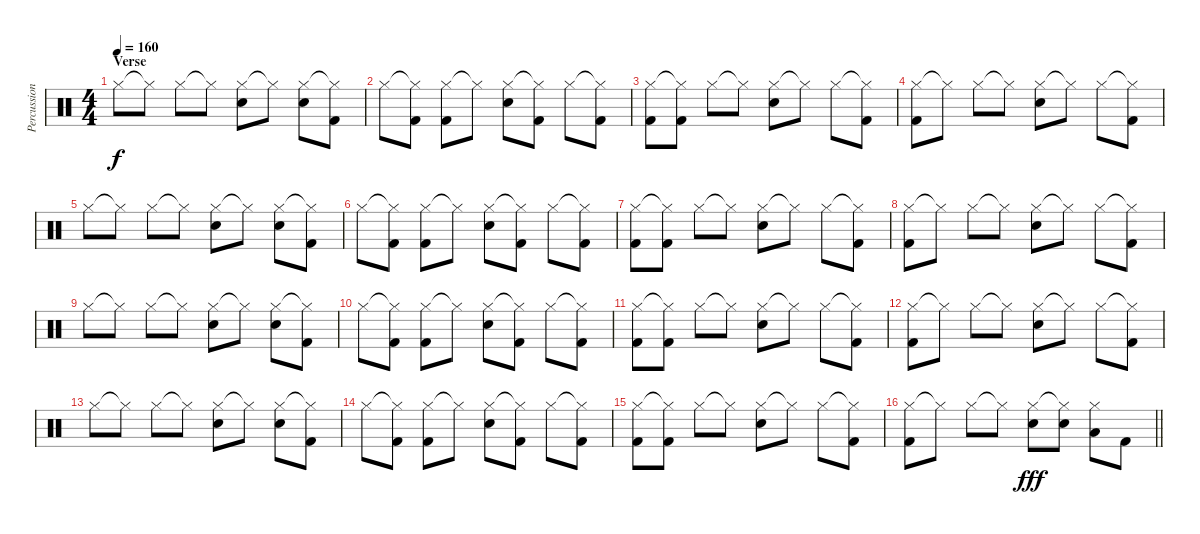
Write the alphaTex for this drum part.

\track ("Percussions" "Percussion") {instrument percussion}
\staff {score}
\articulation defaults
\ts (4 4)
\section ("" "Verse")
\tempo 160
\clef neutral
\ks c "Hi-Hat (closed)".8{dy f} "Hi-Hat (closed)"{t}.8 "Hi-Hat (closed)".8 "Hi-Hat (closed)"{t}.8
("Hi-Hat (closed)" "Snare (hit) 2").8 "Hi-Hat (closed)"{t}.8 ("Hi-Hat (closed)" "Snare (hit) 2").8 ("Hi-Hat (closed)"{t} "Kick (hit) 2").8 |
"Hi-Hat (closed)".8 ("Hi-Hat (closed)"{t} "Kick (hit) 2").8 ("Hi-Hat (closed)" "Kick (hit) 2").8 "Hi-Hat (closed)"{t}.8 ("Hi-Hat (closed)" "Snare (hit) 2").8 ("Hi-Hat (closed)"{t} "Kick (hit) 2").8 "Hi-Hat (closed)".8 ("Hi-Hat (closed)"{t} "Kick (hit) 2").8 |
("Hi-Hat (closed)" "Kick (hit) 2").8 ("Hi-Hat (closed)"{t} "Kick (hit) 2").8 "Hi-Hat (closed)".8 "Hi-Hat (closed)"{t}.8 ("Hi-Hat (closed)" "Snare (hit) 2").8 "Hi-Hat (closed)"{t}.8 "Hi-Hat (closed)".8 ("Hi-Hat (closed)"{t} "Kick (hit) 2").8 |
("Hi-Hat (closed)" "Kick (hit) 2").8 "Hi-Hat (closed)"{t}.8 "Hi-Hat (closed)".8 "Hi-Hat (closed)"{t}.8 ("Hi-Hat (closed)" "Snare (hit) 2").8 "Hi-Hat (closed)"{t}.8 "Hi-Hat (closed)".8 ("Hi-Hat (closed)"{t} "Kick (hit) 2").8 |
"Hi-Hat (closed)".8 "Hi-Hat (closed)"{t}.8 "Hi-Hat (closed)".8 "Hi-Hat (closed)"{t}.8 ("Hi-Hat (closed)" "Snare (hit) 2").8 "Hi-Hat (closed)"{t}.8 ("Hi-Hat (closed)" "Snare (hit) 2").8 ("Hi-Hat (closed)"{t} "Kick (hit) 2").8 |
"Hi-Hat (closed)".8 ("Hi-Hat (closed)"{t} "Kick (hit) 2").8 ("Hi-Hat (closed)" "Kick (hit) 2").8 "Hi-Hat (closed)"{t}.8 ("Hi-Hat (closed)" "Snare (hit) 2").8 ("Hi-Hat (closed)"{t} "Kick (hit) 2").8 "Hi-Hat (closed)".8 ("Hi-Hat (closed)"{t} "Kick (hit) 2").8 |
("Hi-Hat (closed)" "Kick (hit) 2").8 ("Hi-Hat (closed)"{t} "Kick (hit) 2").8 "Hi-Hat (closed)".8 "Hi-Hat (closed)"{t}.8 ("Hi-Hat (closed)" "Snare (hit) 2").8 "Hi-Hat (closed)"{t}.8 "Hi-Hat (closed)".8 ("Hi-Hat (closed)"{t} "Kick (hit) 2").8 |
("Hi-Hat (closed)" "Kick (hit) 2").8 "Hi-Hat (closed)"{t}.8 "Hi-Hat (closed)".8 "Hi-Hat (closed)"{t}.8 ("Hi-Hat (closed)" "Snare (hit) 2").8 "Hi-Hat (closed)"{t}.8 "Hi-Hat (closed)".8 ("Hi-Hat (closed)"{t} "Kick (hit) 2").8 |
"Hi-Hat (closed)".8 "Hi-Hat (closed)"{t}.8 "Hi-Hat (closed)".8 "Hi-Hat (closed)"{t}.8 ("Hi-Hat (closed)" "Snare (hit) 2").8 "Hi-Hat (closed)"{t}.8 ("Hi-Hat (closed)" "Snare (hit) 2").8 ("Hi-Hat (closed)"{t} "Kick (hit) 2").8 |
"Hi-Hat (closed)".8 ("Hi-Hat (closed)"{t} "Kick (hit) 2").8 ("Hi-Hat (closed)" "Kick (hit) 2").8 "Hi-Hat (closed)"{t}.8 ("Hi-Hat (closed)" "Snare (hit) 2").8 ("Hi-Hat (closed)"{t} "Kick (hit) 2").8 "Hi-Hat (closed)".8 ("Hi-Hat (closed)"{t} "Kick (hit) 2").8 |
("Hi-Hat (closed)" "Kick (hit) 2").8 ("Hi-Hat (closed)"{t} "Kick (hit) 2").8 "Hi-Hat (closed)".8 "Hi-Hat (closed)"{t}.8 ("Hi-Hat (closed)" "Snare (hit) 2").8 "Hi-Hat (closed)"{t}.8 "Hi-Hat (closed)".8 ("Hi-Hat (closed)"{t} "Kick (hit) 2").8 |
("Hi-Hat (closed)" "Kick (hit) 2").8 "Hi-Hat (closed)"{t}.8 "Hi-Hat (closed)".8 "Hi-Hat (closed)"{t}.8 ("Hi-Hat (closed)" "Snare (hit) 2").8 "Hi-Hat (closed)"{t}.8 "Hi-Hat (closed)".8 ("Hi-Hat (closed)"{t} "Kick (hit) 2").8 |
"Hi-Hat (closed)".8 "Hi-Hat (closed)"{t}.8 "Hi-Hat (closed)".8 "Hi-Hat (closed)"{t}.8 ("Hi-Hat (closed)" "Snare (hit) 2").8 "Hi-Hat (closed)"{t}.8 ("Hi-Hat (closed)" "Snare (hit) 2").8 ("Hi-Hat (closed)"{t} "Kick (hit) 2").8 |
"Hi-Hat (closed)".8 ("Hi-Hat (closed)"{t} "Kick (hit) 2").8 ("Hi-Hat (closed)" "Kick (hit) 2").8 "Hi-Hat (closed)"{t}.8 ("Hi-Hat (closed)" "Snare (hit) 2").8 ("Hi-Hat (closed)"{t} "Kick (hit) 2").8 "Hi-Hat (closed)".8 ("Hi-Hat (closed)"{t} "Kick (hit) 2").8 |
("Hi-Hat (closed)" "Kick (hit) 2").8 ("Hi-Hat (closed)"{t} "Kick (hit) 2").8 "Hi-Hat (closed)".8 "Hi-Hat (closed)"{t}.8 ("Hi-Hat (closed)" "Snare (hit) 2").8 "Hi-Hat (closed)"{t}.8 "Hi-Hat (closed)".8 ("Hi-Hat (closed)"{t} "Kick (hit) 2").8 |
\barLineRight lightlight
("Hi-Hat (closed)" "Kick (hit) 2").8 "Hi-Hat (closed)"{t}.8 "Hi-Hat (closed)".8 "Hi-Hat (closed)"{t}.8 ("Hi-Hat (closed)" "Snare (hit) 2").8{dy fff} ("Hi-Hat (closed)"{t} "Snare (hit) 2").8 ("Hi-Hat (closed)" "Low Tom (hit)").8 "Kick (hit) 2".8
